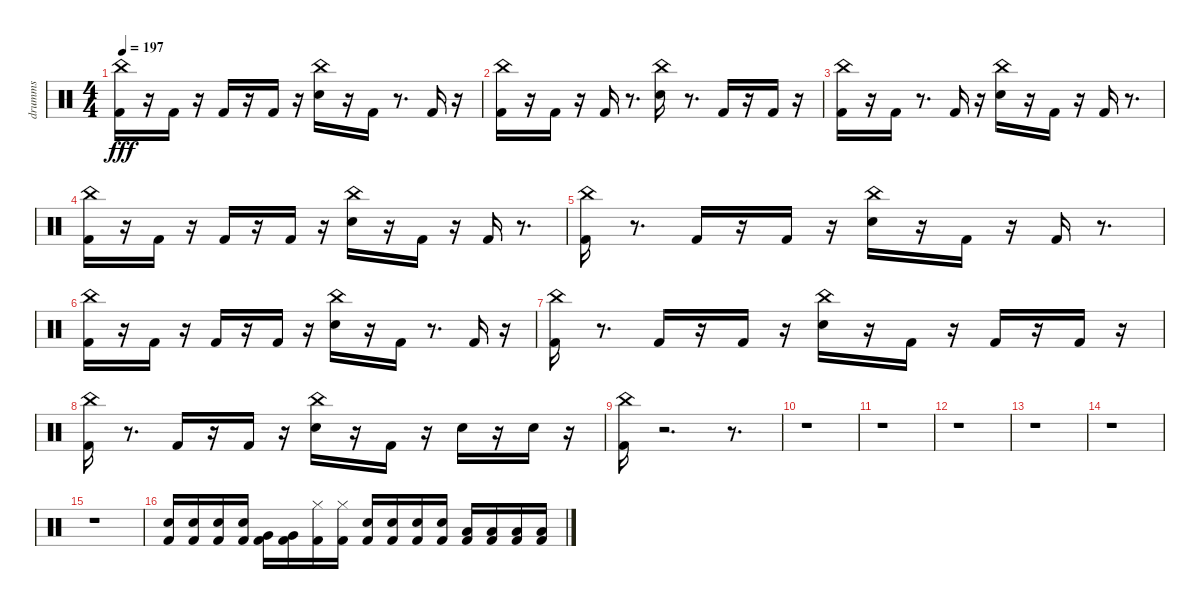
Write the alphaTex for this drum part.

\track ("drumms" "drumms") {instrument percussion}
\staff {score}
\articulation defaults
\ts (4 4)
\tempo 197
\clef neutral
\ks c
("Kick (hit) 2" "China (hit)").16{dy fff volume 12} r.16 "Kick (hit) 2".16{volume 12} r.16 "Kick (hit) 2".16 r.16 "Kick (hit) 2".16 r.16 ("Snare (hit) 2" "China (hit)").16{volume 12} r.16 "Kick (hit) 2".16{volume 12} r.8{d} "Kick (hit) 2".16 r.16 |
("China (hit)" "Kick (hit) 2").16 r.16 "Kick (hit) 2".16{volume 12} r.16 "Kick (hit) 2".16 r.8{d} ("Snare (hit) 2" "China (hit)").16{volume 12} r.8{d} "Kick (hit) 2".16{volume 12} r.16 "Kick (hit) 2".16 r.16 |
("Kick (hit) 2" "China (hit)").16{volume 12} r.16 "Kick (hit) 2".16{volume 12} r.8{d} "Kick (hit) 2".16 r.16 ("Snare (hit) 2" "China (hit)").16 r.16 "Kick (hit) 2".16 r.16 "Kick (hit) 2".16 r.8{d} |
("Kick (hit) 2" "China (hit)").16 r.16 "Kick (hit) 2".16 r.16 "Kick (hit) 2".16 r.16 "Kick (hit) 2".16 r.16 ("Snare (hit) 2" "China (hit)").16 r.16 "Kick (hit) 2".16 r.16 "Kick (hit) 2".16{volume 12} r.8{d} |
("Kick (hit) 2" "China (hit)").16{volume 12} r.8{d} "Kick (hit) 2".16{volume 12} r.16 "Kick (hit) 2".16{volume 12} r.16 ("Snare (hit) 2" "China (hit)").16{volume 12} r.16 "Kick (hit) 2".16 r.16 "Kick (hit) 2".16 r.8{d} |
("Kick (hit) 2" "China (hit)").16 r.16 "Kick (hit) 2".16 r.16 "Kick (hit) 2".16 r.16 "Kick (hit) 2".16{volume 12} r.16 ("Snare (hit) 2" "China (hit)").16{volume 12} r.16 "Kick (hit) 2".16 r.8{d} "Kick (hit) 2".16{volume 12} r.16 |
("Kick (hit) 2" "China (hit)").16{volume 12} r.8{d} "Kick (hit) 2".16{volume 12} r.16 "Kick (hit) 2".16 r.16 ("Snare (hit) 2" "China (hit)").16{volume 12} r.16 "Kick (hit) 2".16{volume 12} r.16 "Kick (hit) 2".16 r.16 "Kick (hit) 2".16 r.16 |
("Kick (hit) 2" "China (hit)").16 r.8{d} "Kick (hit) 2".16{volume 12} r.16 "Kick (hit) 2".16 r.16 ("Snare (hit) 2" "China (hit)").16{volume 12} r.16 "Kick (hit) 2".16 r.16 "Snare (hit) 2".16{volume 12} r.16 "Snare (hit) 2".16 r.16 |
("Kick (hit) 2" "China (hit)").16{volume 12} r.2{d} r.8{d} |
r.1 |
r.1 |
r.1 |
r.1 |
r.1 |
r.1 |
("Kick (hit) 2" "Electric Snare (hit)").16 ("Kick (hit) 2" "Electric Snare (hit)").16 ("Kick (hit) 2" "Electric Snare (hit)").16 ("Kick (hit) 2" "Electric Snare (hit)").16 ("Kick (hit) 2" "Very Low Tom (hit)").16 ("Kick (hit) 2" "Very Low Tom (hit)").16 ("Kick (hit) 2" "Hi-Hat (closed)").16 ("Kick (hit) 2" "Hi-Hat (closed)").16 ("Kick (hit) 2" "Electric Snare (hit)").16 ("Kick (hit) 2" "Electric Snare (hit)").16 ("Kick (hit) 2" "Electric Snare (hit)").16 ("Kick (hit) 2" "Electric Snare (hit)").16 ("Kick (hit) 2" "Low Floor Tom (hit)").16 ("Kick (hit) 2" "Low Floor Tom (hit)").16 ("Kick (hit) 2" "Low Floor Tom (hit)").16 ("Kick (hit) 2" "Low Floor Tom (hit)").16
